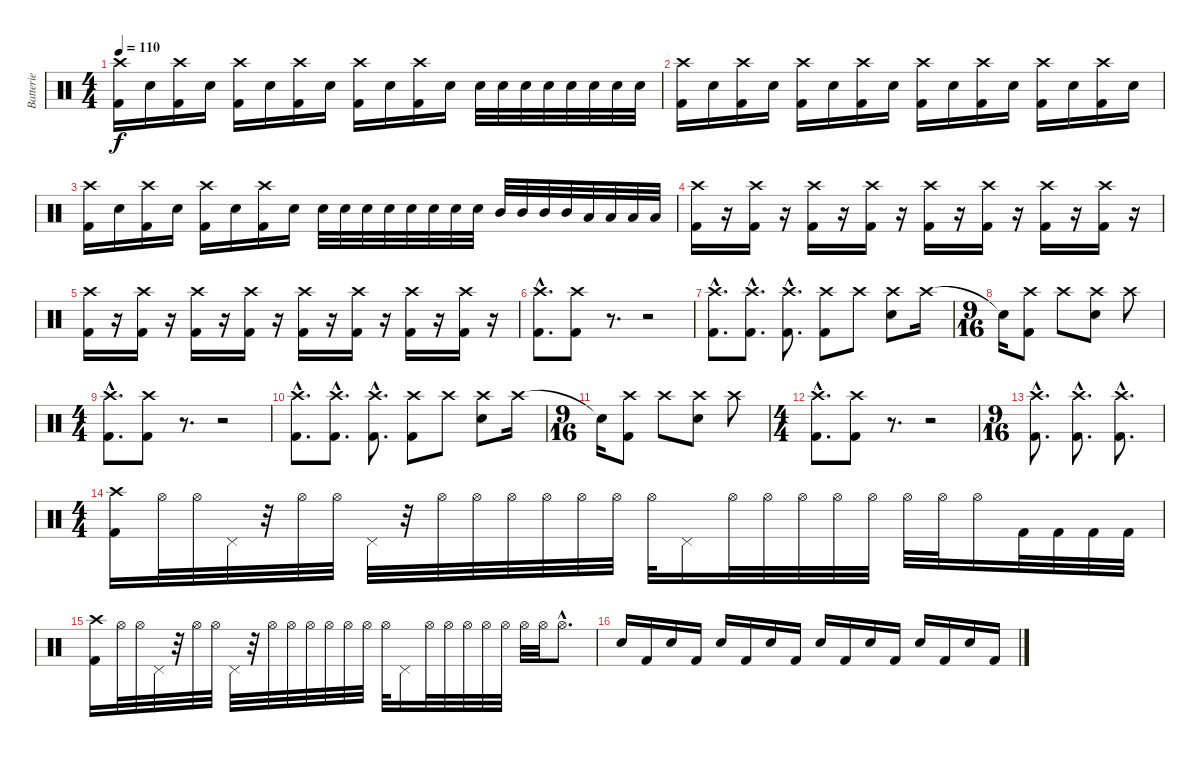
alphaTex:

\track ("Batterie" "Batterie") {instrument percussion}
\staff {score}
\articulation defaults
\ts (4 4)
\tempo 110
\clef neutral
\ks c
("Crash high (hit)" "Kick (hit) 2").16{dy f} "Electric Snare (hit)".16 ("Crash high (hit)" "Kick (hit) 2").16 "Electric Snare (hit)".16 ("Crash high (hit)" "Kick (hit) 2").16 "Electric Snare (hit)".16 ("Crash high (hit)" "Kick (hit) 2").16 "Electric Snare (hit)".16 ("Crash high (hit)" "Kick (hit) 2").16 "Electric Snare (hit)".16 ("Crash high (hit)" "Kick (hit) 2").16 "Electric Snare (hit)".16 "Electric Snare (hit)".32 "Electric Snare (hit)".32 "Electric Snare (hit)".32 "Electric Snare (hit)".32 "Electric Snare (hit)".32 "Electric Snare (hit)".32 "Electric Snare (hit)".32 "Electric Snare (hit)".32 |
("Crash high (hit)" "Kick (hit) 2").16 "Electric Snare (hit)".16 ("Crash high (hit)" "Kick (hit) 2").16 "Electric Snare (hit)".16 ("Crash high (hit)" "Kick (hit) 2").16 "Electric Snare (hit)".16 ("Crash high (hit)" "Kick (hit) 2").16 "Electric Snare (hit)".16 ("Crash high (hit)" "Kick (hit) 2").16 "Electric Snare (hit)".16 ("Crash high (hit)" "Kick (hit) 2").16 "Electric Snare (hit)".16 ("Crash high (hit)" "Kick (hit) 2").16 "Electric Snare (hit)".16 ("Crash high (hit)" "Kick (hit) 2").16 "Electric Snare (hit)".16 |
("Crash high (hit)" "Kick (hit) 2").16 "Electric Snare (hit)".16 ("Crash high (hit)" "Kick (hit) 2").16 "Electric Snare (hit)".16 ("Crash high (hit)" "Kick (hit) 2").16 "Electric Snare (hit)".16 ("Crash high (hit)" "Kick (hit) 2").16 "Electric Snare (hit)".16 "Electric Snare (hit)".32 "Electric Snare (hit)".32 "Electric Snare (hit)".32 "Electric Snare (hit)".32 "Electric Snare (hit)".32 "Electric Snare (hit)".32 "Electric Snare (hit)".32 "Electric Snare (hit)".32 "Mid Tom (hit)".32 "Mid Tom (hit)".32 "Mid Tom (hit)".32 "Mid Tom (hit)".32 "Low Tom (hit)".32 "Low Tom (hit)".32 "Low Tom (hit)".32 "Low Tom (hit)".32 |
\section ("" "")
("Crash high (hit)" "Kick (hit) 2").16 r.16 ("Crash high (hit)" "Kick (hit) 2").16 r.16 ("Crash high (hit)" "Kick (hit) 2").16 r.16 ("Crash high (hit)" "Kick (hit) 2").16 r.16 ("Crash high (hit)" "Kick (hit) 2").16 r.16 ("Crash high (hit)" "Kick (hit) 2").16 r.16 ("Crash high (hit)" "Kick (hit) 2").16 r.16 ("Crash high (hit)" "Kick (hit) 2").16 r.16 |
("Crash high (hit)" "Kick (hit) 2").16 r.16 ("Crash high (hit)" "Kick (hit) 2").16 r.16 ("Crash high (hit)" "Kick (hit) 2").16 r.16 ("Crash high (hit)" "Kick (hit) 2").16 r.16 ("Crash high (hit)" "Kick (hit) 2").16 r.16 ("Crash high (hit)" "Kick (hit) 2").16 r.16 ("Crash high (hit)" "Kick (hit) 2").16 r.16 ("Crash high (hit)" "Kick (hit) 2").16 r.16 |
\section ("" "")
("Crash high (hit)"{hac} "Kick (hit) 2"{hac}).8{d} ("Crash high (hit)" "Kick (hit) 2").8 r.8{d} r.2 |
("Crash high (hit)"{hac} "Kick (hit) 2"{hac}).8{d} ("Crash high (hit)"{hac} "Kick (hit) 2"{hac}).8{d} ("Crash high (hit)"{hac} "Kick (hit) 2"{hac}).8{d} ("Crash high (hit)" "Kick (hit) 2").8 "Crash high (hit)".8 ("Crash high (hit)" "Electric Snare (hit)").8 "Crash high (hit)".16 |
\ts (9 16)
"Snare (hit)"{t}.16 ("Crash high (hit)" "Kick (hit) 2").8 "Crash high (hit)".8 ("Crash high (hit)" "Electric Snare (hit)").8 "Crash high (hit)".8 |
\ts (4 4)
("Crash high (hit)"{hac} "Kick (hit) 2"{hac}).8{d} ("Crash high (hit)" "Kick (hit) 2").8 r.8{d} r.2 |
("Crash high (hit)"{hac} "Kick (hit) 2"{hac}).8{d} ("Crash high (hit)"{hac} "Kick (hit) 2"{hac}).8{d} ("Crash high (hit)"{hac} "Kick (hit) 2"{hac}).8{d} ("Crash high (hit)" "Kick (hit) 2").8 "Crash high (hit)".8 ("Crash high (hit)" "Electric Snare (hit)").8 "Crash high (hit)".16 |
\ts (9 16)
"Snare (hit)"{t}.16 ("Crash high (hit)" "Kick (hit) 2").8 "Crash high (hit)".8 ("Crash high (hit)" "Electric Snare (hit)").8 "Crash high (hit)".8 |
\ts (4 4)
("Crash high (hit)"{hac} "Kick (hit) 2"{hac}).8{d} ("Crash high (hit)" "Kick (hit) 2").8 r.8{d} r.2 |
\ts (9 16)
("Crash high (hit)"{hac} "Kick (hit) 2"{hac}).8{d} ("Crash high (hit)"{hac} "Kick (hit) 2"{hac}).8{d} ("Crash high (hit)"{hac} "Kick (hit) 2"{hac}).8{d} |
\ts (4 4)
\section ("" "")
("Crash high (hit)" "Kick (hit) 2").16 "Hi-Hat (open)".32 "Hi-Hat (open)".32 "Pedal Hi-Hat (hit)".32 r.32 "Hi-Hat (open)".32 "Hi-Hat (open)".32 "Pedal Hi-Hat (hit)".32 r.32 "Hi-Hat (open)".32 "Hi-Hat (open)".32 "Hi-Hat (open)".32 "Hi-Hat (open)".32 "Hi-Hat (open)".32 "Hi-Hat (open)".32 "Hi-Hat (open)".32 "Pedal Hi-Hat (hit)".16 "Hi-Hat (open)".32 "Hi-Hat (open)".32 "Hi-Hat (open)".32 "Hi-Hat (open)".32 "Hi-Hat (open)".32 "Hi-Hat (open)".32 "Hi-Hat (open)".32 "Hi-Hat (open)".16 "Kick (hit) 2".32 "Kick (hit) 2".32 "Kick (hit) 2".32 "Kick (hit) 2".32 |
("Crash high (hit)" "Kick (hit) 2").16 "Hi-Hat (open)".32 "Hi-Hat (open)".32 "Pedal Hi-Hat (hit)".32 r.32 "Hi-Hat (open)".32 "Hi-Hat (open)".32 "Pedal Hi-Hat (hit)".32 r.32 "Hi-Hat (open)".32 "Hi-Hat (open)".32 "Hi-Hat (open)".32 "Hi-Hat (open)".32 "Hi-Hat (open)".32 "Hi-Hat (open)".32 "Hi-Hat (open)".32 "Pedal Hi-Hat (hit)".16 "Hi-Hat (open)".32 "Hi-Hat (open)".32 "Hi-Hat (open)".32 "Hi-Hat (open)".32 "Hi-Hat (open)".32 "Hi-Hat (open)".32 "Hi-Hat (open)".32 "Hi-Hat (open)"{hac}.8{d} |
"Electric Snare (hit)".16{volume 7} "Kick (hit) 2".16 "Electric Snare (hit)".16 "Kick (hit) 2".16 "Electric Snare (hit)".16{volume 14} "Kick (hit) 2".16 "Electric Snare (hit)".16 "Kick (hit) 2".16 "Electric Snare (hit)".16 "Kick (hit) 2".16 "Electric Snare (hit)".16 "Kick (hit) 2".16 "Electric Snare (hit)".16 "Kick (hit) 2".16 "Electric Snare (hit)".16 "Kick (hit) 2".16
